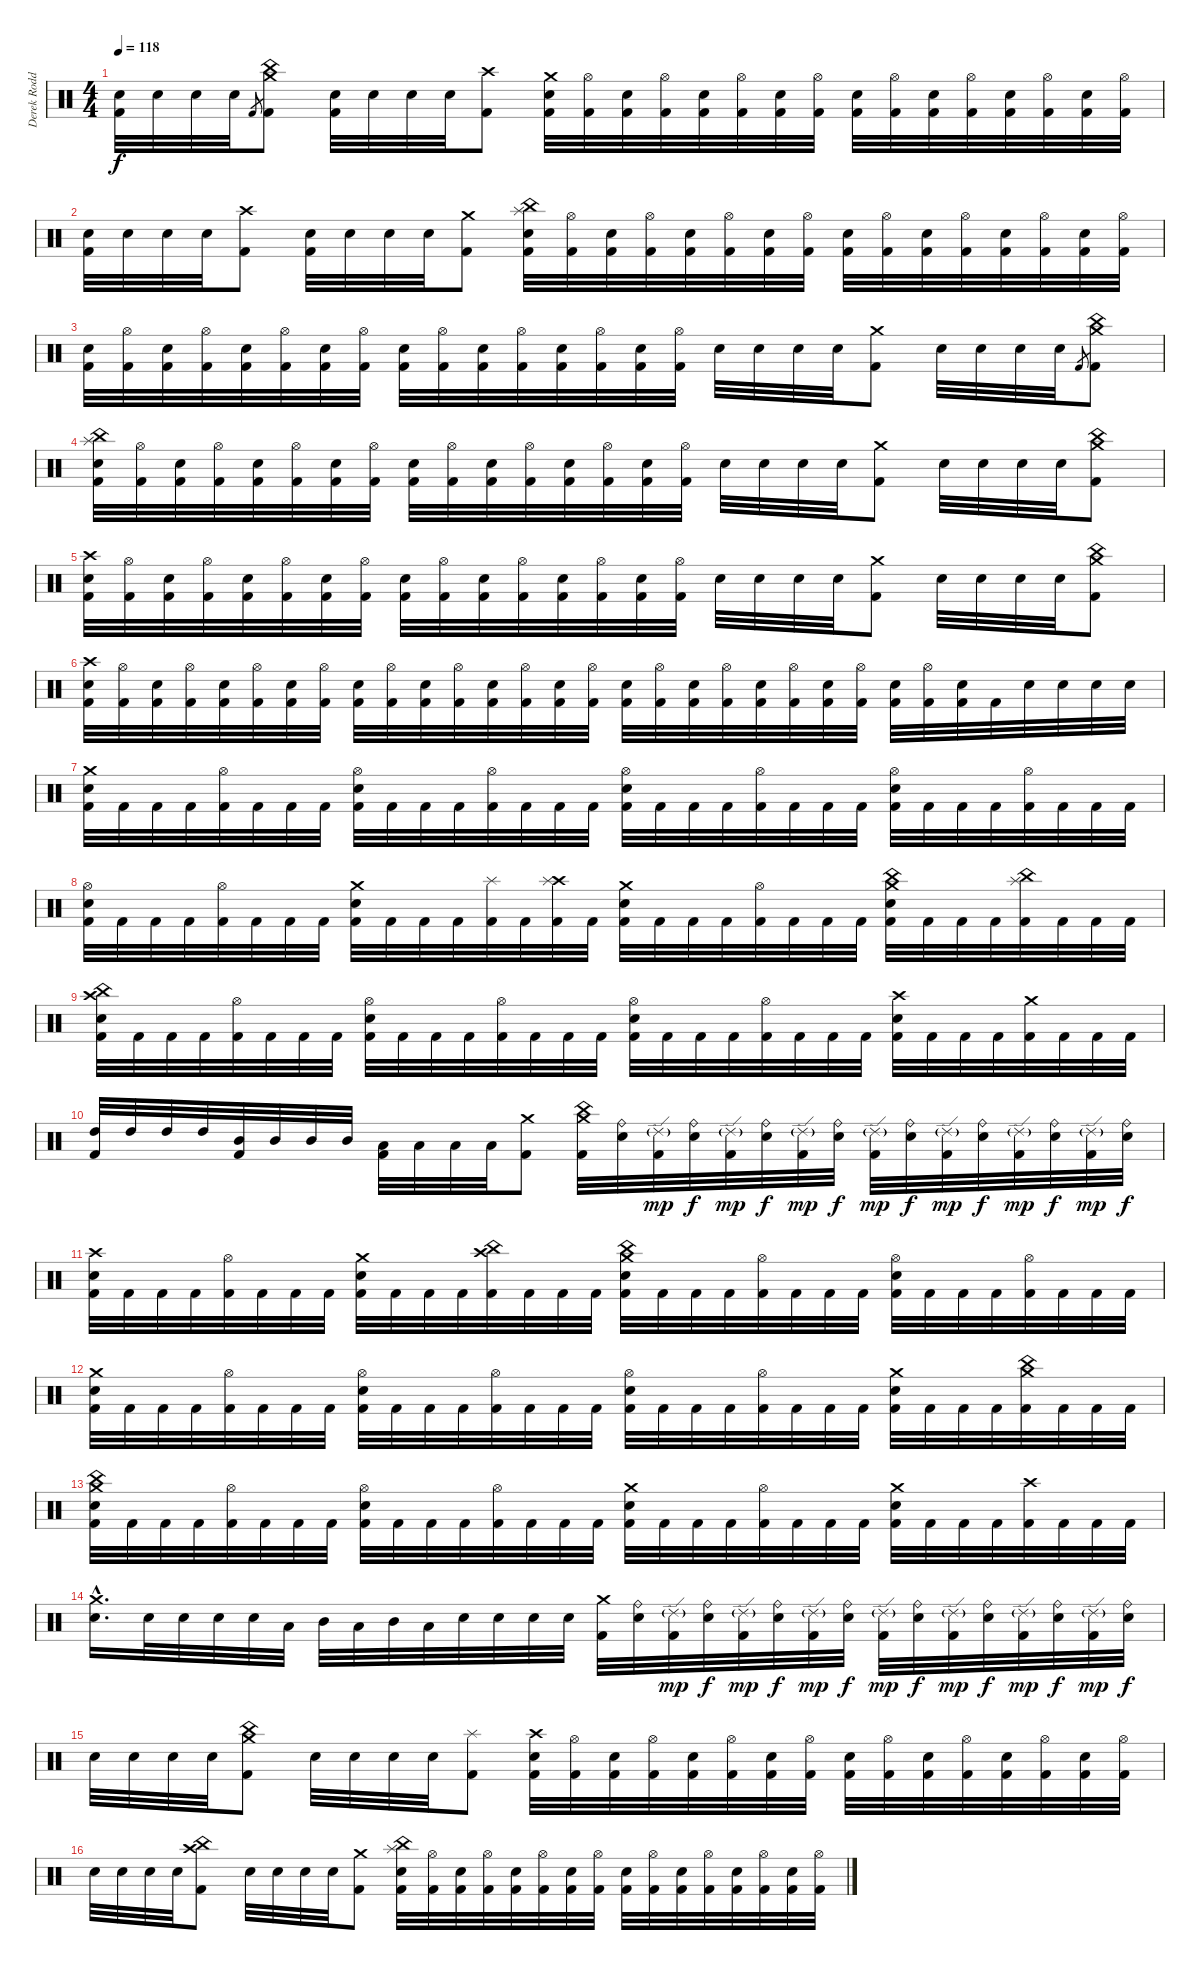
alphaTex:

\track ("Derek Roddy" "Derek Rodd") {instrument percussion}
\staff {score}
\articulation defaults
\ts (4 4)
\tempo 118
\clef neutral
\ks c
("Electric Snare (hit)" "Kick (hit) 2").32{dy f} "Electric Snare (hit)".32 "Electric Snare (hit)".32 "Electric Snare (hit)".32 "Kick (hit) 2".8{gr} ("Crash medium (hit)" "China (hit)" "Kick (hit) 2").8 ("Electric Snare (hit)" "Kick (hit) 2").32 "Electric Snare (hit)".32 "Electric Snare (hit)".32 "Electric Snare (hit)".32 ("Crash high (hit)" "Kick (hit) 2").8 ("Crash medium (hit)" "Electric Snare (hit)" "Kick (hit) 2").32 ("Hi-Hat (open)" "Kick (hit) 2").32 ("Electric Snare (hit)" "Kick (hit) 2").32 ("Hi-Hat (open)" "Kick (hit) 2").32 ("Electric Snare (hit)" "Kick (hit) 2").32 ("Hi-Hat (open)" "Kick (hit) 2").32 ("Electric Snare (hit)" "Kick (hit) 2").32 ("Hi-Hat (open)" "Kick (hit) 2").32 ("Electric Snare (hit)" "Kick (hit) 2").32 ("Hi-Hat (open)" "Kick (hit) 2").32 ("Electric Snare (hit)" "Kick (hit) 2").32 ("Hi-Hat (open)" "Kick (hit) 2").32 ("Electric Snare (hit)" "Kick (hit) 2").32 ("Hi-Hat (open)" "Kick (hit) 2").32 ("Electric Snare (hit)" "Kick (hit) 2").32 ("Hi-Hat (open)" "Kick (hit) 2").32 |
("Electric Snare (hit)" "Kick (hit) 2").32 "Electric Snare (hit)".32 "Electric Snare (hit)".32 "Electric Snare (hit)".32 ("Crash high (hit)" "Kick (hit) 2").8 ("Electric Snare (hit)" "Kick (hit) 2").32 "Electric Snare (hit)".32 "Electric Snare (hit)".32 "Electric Snare (hit)".32 ("Crash medium (hit)" "Kick (hit) 2").8 ("Splash (hit)" "China (hit)" "Electric Snare (hit)" "Kick (hit) 2").32 ("Hi-Hat (open)" "Kick (hit) 2").32 ("Electric Snare (hit)" "Kick (hit) 2").32 ("Hi-Hat (open)" "Kick (hit) 2").32 ("Electric Snare (hit)" "Kick (hit) 2").32 ("Hi-Hat (open)" "Kick (hit) 2").32 ("Electric Snare (hit)" "Kick (hit) 2").32 ("Hi-Hat (open)" "Kick (hit) 2").32 ("Electric Snare (hit)" "Kick (hit) 2").32 ("Hi-Hat (open)" "Kick (hit) 2").32 ("Electric Snare (hit)" "Kick (hit) 2").32 ("Hi-Hat (open)" "Kick (hit) 2").32 ("Electric Snare (hit)" "Kick (hit) 2").32 ("Hi-Hat (open)" "Kick (hit) 2").32 ("Electric Snare (hit)" "Kick (hit) 2").32 ("Hi-Hat (open)" "Kick (hit) 2").32 |
("Electric Snare (hit)" "Kick (hit) 2").32 ("Hi-Hat (open)" "Kick (hit) 2").32 ("Electric Snare (hit)" "Kick (hit) 2").32 ("Hi-Hat (open)" "Kick (hit) 2").32 ("Electric Snare (hit)" "Kick (hit) 2").32 ("Hi-Hat (open)" "Kick (hit) 2").32 ("Electric Snare (hit)" "Kick (hit) 2").32 ("Hi-Hat (open)" "Kick (hit) 2").32 ("Electric Snare (hit)" "Kick (hit) 2").32 ("Hi-Hat (open)" "Kick (hit) 2").32 ("Electric Snare (hit)" "Kick (hit) 2").32 ("Hi-Hat (open)" "Kick (hit) 2").32 ("Electric Snare (hit)" "Kick (hit) 2").32 ("Hi-Hat (open)" "Kick (hit) 2").32 ("Electric Snare (hit)" "Kick (hit) 2").32 ("Hi-Hat (open)" "Kick (hit) 2").32 "Electric Snare (hit)".32 "Electric Snare (hit)".32 "Electric Snare (hit)".32 "Electric Snare (hit)".32 ("Crash medium (hit)" "Kick (hit) 2").8 "Electric Snare (hit)".32 "Electric Snare (hit)".32 "Electric Snare (hit)".32 "Electric Snare (hit)".32 "Kick (hit) 2".8{gr} ("Crash medium (hit)" "China (hit)" "Kick (hit) 2").8 |
("Splash (hit)" "China (hit)" "Electric Snare (hit)" "Kick (hit) 2").32 ("Hi-Hat (open)" "Kick (hit) 2").32 ("Electric Snare (hit)" "Kick (hit) 2").32 ("Hi-Hat (open)" "Kick (hit) 2").32 ("Electric Snare (hit)" "Kick (hit) 2").32 ("Hi-Hat (open)" "Kick (hit) 2").32 ("Electric Snare (hit)" "Kick (hit) 2").32 ("Hi-Hat (open)" "Kick (hit) 2").32 ("Electric Snare (hit)" "Kick (hit) 2").32 ("Hi-Hat (open)" "Kick (hit) 2").32 ("Electric Snare (hit)" "Kick (hit) 2").32 ("Hi-Hat (open)" "Kick (hit) 2").32 ("Electric Snare (hit)" "Kick (hit) 2").32 ("Hi-Hat (open)" "Kick (hit) 2").32 ("Electric Snare (hit)" "Kick (hit) 2").32 ("Hi-Hat (open)" "Kick (hit) 2").32 "Electric Snare (hit)".32 "Electric Snare (hit)".32 "Electric Snare (hit)".32 "Electric Snare (hit)".32 ("Crash medium (hit)" "Kick (hit) 2").8 "Electric Snare (hit)".32 "Electric Snare (hit)".32 "Electric Snare (hit)".32 "Electric Snare (hit)".32 ("Crash medium (hit)" "China (hit)" "Kick (hit) 2").8 |
("Crash high (hit)" "Electric Snare (hit)" "Kick (hit) 2").32 ("Hi-Hat (open)" "Kick (hit) 2").32 ("Electric Snare (hit)" "Kick (hit) 2").32 ("Hi-Hat (open)" "Kick (hit) 2").32 ("Electric Snare (hit)" "Kick (hit) 2").32 ("Hi-Hat (open)" "Kick (hit) 2").32 ("Electric Snare (hit)" "Kick (hit) 2").32 ("Hi-Hat (open)" "Kick (hit) 2").32 ("Electric Snare (hit)" "Kick (hit) 2").32 ("Hi-Hat (open)" "Kick (hit) 2").32 ("Electric Snare (hit)" "Kick (hit) 2").32 ("Hi-Hat (open)" "Kick (hit) 2").32 ("Electric Snare (hit)" "Kick (hit) 2").32 ("Hi-Hat (open)" "Kick (hit) 2").32 ("Electric Snare (hit)" "Kick (hit) 2").32 ("Hi-Hat (open)" "Kick (hit) 2").32 "Electric Snare (hit)".32 "Electric Snare (hit)".32 "Electric Snare (hit)".32 "Electric Snare (hit)".32 ("Crash medium (hit)" "Kick (hit) 2").8 "Electric Snare (hit)".32 "Electric Snare (hit)".32 "Electric Snare (hit)".32 "Electric Snare (hit)".32 ("Crash medium (hit)" "China (hit)" "Kick (hit) 2").8 |
("Crash high (hit)" "Electric Snare (hit)" "Kick (hit) 2").32 ("Hi-Hat (open)" "Kick (hit) 2").32 ("Electric Snare (hit)" "Kick (hit) 2").32 ("Hi-Hat (open)" "Kick (hit) 2").32 ("Electric Snare (hit)" "Kick (hit) 2").32 ("Hi-Hat (open)" "Kick (hit) 2").32 ("Electric Snare (hit)" "Kick (hit) 2").32 ("Hi-Hat (open)" "Kick (hit) 2").32 ("Electric Snare (hit)" "Kick (hit) 2").32 ("Hi-Hat (open)" "Kick (hit) 2").32 ("Electric Snare (hit)" "Kick (hit) 2").32 ("Hi-Hat (open)" "Kick (hit) 2").32 ("Electric Snare (hit)" "Kick (hit) 2").32 ("Hi-Hat (open)" "Kick (hit) 2").32 ("Electric Snare (hit)" "Kick (hit) 2").32 ("Hi-Hat (open)" "Kick (hit) 2").32 ("Electric Snare (hit)" "Kick (hit) 2").32 ("Hi-Hat (open)" "Kick (hit) 2").32 ("Electric Snare (hit)" "Kick (hit) 2").32 ("Hi-Hat (open)" "Kick (hit) 2").32 ("Electric Snare (hit)" "Kick (hit) 2").32 ("Hi-Hat (open)" "Kick (hit) 2").32 ("Electric Snare (hit)" "Kick (hit) 2").32 ("Hi-Hat (open)" "Kick (hit) 2").32 ("Electric Snare (hit)" "Kick (hit) 2").32 ("Hi-Hat (open)" "Kick (hit) 2").32 ("Electric Snare (hit)" "Kick (hit) 2").32 "Kick (hit) 2".32 "Electric Snare (hit)".32 "Electric Snare (hit)".32 "Electric Snare (hit)".32 "Electric Snare (hit)".32 |
("Crash medium (hit)" "Electric Snare (hit)" "Kick (hit) 2").32 "Kick (hit) 2".32 "Kick (hit) 2".32 "Kick (hit) 2".32 ("Hi-Hat (open)" "Kick (hit) 2").32 "Kick (hit) 2".32 "Kick (hit) 2".32 "Kick (hit) 2".32 ("Hi-Hat (open)" "Electric Snare (hit)" "Kick (hit) 2").32 "Kick (hit) 2".32 "Kick (hit) 2".32 "Kick (hit) 2".32 ("Hi-Hat (open)" "Kick (hit) 2").32 "Kick (hit) 2".32 "Kick (hit) 2".32 "Kick (hit) 2".32 ("Hi-Hat (open)" "Electric Snare (hit)" "Kick (hit) 2").32 "Kick (hit) 2".32 "Kick (hit) 2".32 "Kick (hit) 2".32 ("Hi-Hat (open)" "Kick (hit) 2").32 "Kick (hit) 2".32 "Kick (hit) 2".32 "Kick (hit) 2".32 ("Hi-Hat (open)" "Electric Snare (hit)" "Kick (hit) 2").32 "Kick (hit) 2".32 "Kick (hit) 2".32 "Kick (hit) 2".32 ("Hi-Hat (open)" "Kick (hit) 2").32 "Kick (hit) 2".32 "Kick (hit) 2".32 "Kick (hit) 2".32 |
("Hi-Hat (open)" "Electric Snare (hit)" "Kick (hit) 2").32 "Kick (hit) 2".32 "Kick (hit) 2".32 "Kick (hit) 2".32 ("Hi-Hat (open)" "Kick (hit) 2").32 "Kick (hit) 2".32 "Kick (hit) 2".32 "Kick (hit) 2".32 ("Crash medium (hit)" "Electric Snare (hit)" "Kick (hit) 2").32 "Kick (hit) 2".32 "Kick (hit) 2".32 "Kick (hit) 2".32 ("Splash (hit)" "Kick (hit) 2").32 "Kick (hit) 2".32 ("Crash high (hit)" "Splash (hit)" "Kick (hit) 2").32 "Kick (hit) 2".32 ("Crash medium (hit)" "Electric Snare (hit)" "Kick (hit) 2").32 "Kick (hit) 2".32 "Kick (hit) 2".32 "Kick (hit) 2".32 ("Hi-Hat (open)" "Kick (hit) 2").32 "Kick (hit) 2".32 "Kick (hit) 2".32 "Kick (hit) 2".32 ("Crash medium (hit)" "China (hit)" "Electric Snare (hit)" "Kick (hit) 2").32 "Kick (hit) 2".32 "Kick (hit) 2".32 "Kick (hit) 2".32 ("Splash (hit)" "China (hit)" "Kick (hit) 2").32 "Kick (hit) 2".32 "Kick (hit) 2".32 "Kick (hit) 2".32 |
("Crash high (hit)" "China (hit)" "Electric Snare (hit)" "Kick (hit) 2").32 "Kick (hit) 2".32 "Kick (hit) 2".32 "Kick (hit) 2".32 ("Hi-Hat (open)" "Kick (hit) 2").32 "Kick (hit) 2".32 "Kick (hit) 2".32 "Kick (hit) 2".32 ("Hi-Hat (open)" "Electric Snare (hit)" "Kick (hit) 2").32 "Kick (hit) 2".32 "Kick (hit) 2".32 "Kick (hit) 2".32 ("Hi-Hat (open)" "Kick (hit) 2").32 "Kick (hit) 2".32 "Kick (hit) 2".32 "Kick (hit) 2".32 ("Hi-Hat (open)" "Electric Snare (hit)" "Kick (hit) 2").32 "Kick (hit) 2".32 "Kick (hit) 2".32 "Kick (hit) 2".32 ("Hi-Hat (open)" "Kick (hit) 2").32 "Kick (hit) 2".32 "Kick (hit) 2".32 "Kick (hit) 2".32 ("Crash high (hit)" "Electric Snare (hit)" "Kick (hit) 2").32 "Kick (hit) 2".32 "Kick (hit) 2".32 "Kick (hit) 2".32 ("Crash medium (hit)" "Kick (hit) 2").32 "Kick (hit) 2".32 "Kick (hit) 2".32 "Kick (hit) 2".32 |
("High Tom (hit)" "Kick (hit) 2").32 "High Tom (hit)".32 "High Tom (hit)".32 "High Tom (hit)".32 ("Mid Tom (hit)" "Kick (hit) 2").32 "Mid Tom (hit)".32 "Mid Tom (hit)".32 "Mid Tom (hit)".32 ("Low Tom (hit)" "Kick (hit) 2").32 "Low Tom (hit)".32 "Low Tom (hit)".32 "Low Tom (hit)".32 ("Crash medium (hit)" "Kick (hit) 2").8 ("Crash medium (hit)" "China (hit)" "Kick (hit) 2").32 ("Ride (bell)" "Electric Snare (hit)").32 ("Ride (edge) 2"{g} "Kick (hit) 2").32{dy mp} ("Ride (bell)" "Electric Snare (hit)").32{dy f} ("Ride (edge) 2"{g} "Kick (hit) 2").32{dy mp} ("Ride (bell)" "Electric Snare (hit)").32{dy f} ("Ride (edge) 2"{g} "Kick (hit) 2").32{dy mp} ("Ride (bell)" "Electric Snare (hit)").32{dy f} ("Ride (edge) 2"{g} "Kick (hit) 2").32{dy mp} ("Ride (bell)" "Electric Snare (hit)").32{dy f} ("Ride (edge) 2"{g} "Kick (hit) 2").32{dy mp} ("Ride (bell)" "Electric Snare (hit)").32{dy f} ("Ride (edge) 2"{g} "Kick (hit) 2").32{dy mp} ("Ride (bell)" "Electric Snare (hit)").32{dy f} ("Ride (edge) 2"{g} "Kick (hit) 2").32{dy mp} ("Ride (bell)" "Electric Snare (hit)").32{dy f} |
("Crash high (hit)" "Electric Snare (hit)" "Kick (hit) 2").32 "Kick (hit) 2".32 "Kick (hit) 2".32 "Kick (hit) 2".32 ("Hi-Hat (open)" "Kick (hit) 2").32 "Kick (hit) 2".32 "Kick (hit) 2".32 "Kick (hit) 2".32 ("Crash medium (hit)" "Electric Snare (hit)" "Kick (hit) 2").32 "Kick (hit) 2".32 "Kick (hit) 2".32 "Kick (hit) 2".32 ("Crash high (hit)" "China (hit)" "Kick (hit) 2").32 "Kick (hit) 2".32 "Kick (hit) 2".32 "Kick (hit) 2".32 ("Crash medium (hit)" "China (hit)" "Electric Snare (hit)" "Kick (hit) 2").32 "Kick (hit) 2".32 "Kick (hit) 2".32 "Kick (hit) 2".32 ("Hi-Hat (open)" "Kick (hit) 2").32 "Kick (hit) 2".32 "Kick (hit) 2".32 "Kick (hit) 2".32 ("Hi-Hat (open)" "Electric Snare (hit)" "Kick (hit) 2").32 "Kick (hit) 2".32 "Kick (hit) 2".32 "Kick (hit) 2".32 ("Hi-Hat (open)" "Kick (hit) 2").32 "Kick (hit) 2".32 "Kick (hit) 2".32 "Kick (hit) 2".32 |
("Crash medium (hit)" "Electric Snare (hit)" "Kick (hit) 2").32 "Kick (hit) 2".32 "Kick (hit) 2".32 "Kick (hit) 2".32 ("Hi-Hat (open)" "Kick (hit) 2").32 "Kick (hit) 2".32 "Kick (hit) 2".32 "Kick (hit) 2".32 ("Hi-Hat (open)" "Electric Snare (hit)" "Kick (hit) 2").32 "Kick (hit) 2".32 "Kick (hit) 2".32 "Kick (hit) 2".32 ("Hi-Hat (open)" "Kick (hit) 2").32 "Kick (hit) 2".32 "Kick (hit) 2".32 "Kick (hit) 2".32 ("Hi-Hat (open)" "Electric Snare (hit)" "Kick (hit) 2").32 "Kick (hit) 2".32 "Kick (hit) 2".32 "Kick (hit) 2".32 ("Hi-Hat (open)" "Kick (hit) 2").32 "Kick (hit) 2".32 "Kick (hit) 2".32 "Kick (hit) 2".32 ("Crash medium (hit)" "Electric Snare (hit)" "Kick (hit) 2").32 "Kick (hit) 2".32 "Kick (hit) 2".32 "Kick (hit) 2".32 ("Crash medium (hit)" "China (hit)" "Kick (hit) 2").32 "Kick (hit) 2".32 "Kick (hit) 2".32 "Kick (hit) 2".32 |
("Crash medium (hit)" "China (hit)" "Electric Snare (hit)" "Kick (hit) 2").32 "Kick (hit) 2".32 "Kick (hit) 2".32 "Kick (hit) 2".32 ("Hi-Hat (open)" "Kick (hit) 2").32 "Kick (hit) 2".32 "Kick (hit) 2".32 "Kick (hit) 2".32 ("Hi-Hat (open)" "Electric Snare (hit)" "Kick (hit) 2").32 "Kick (hit) 2".32 "Kick (hit) 2".32 "Kick (hit) 2".32 ("Hi-Hat (open)" "Kick (hit) 2").32 "Kick (hit) 2".32 "Kick (hit) 2".32 "Kick (hit) 2".32 ("Crash medium (hit)" "Electric Snare (hit)" "Kick (hit) 2").32 "Kick (hit) 2".32 "Kick (hit) 2".32 "Kick (hit) 2".32 ("Hi-Hat (open)" "Kick (hit) 2").32 "Kick (hit) 2".32 "Kick (hit) 2".32 "Kick (hit) 2".32 ("Crash medium (hit)" "Electric Snare (hit)" "Kick (hit) 2").32 "Kick (hit) 2".32 "Kick (hit) 2".32 "Kick (hit) 2".32 ("Crash high (hit)" "Kick (hit) 2").32 "Kick (hit) 2".32 "Kick (hit) 2".32 "Kick (hit) 2".32 |
("Crash medium (hit)"{hac} "Electric Snare (hit)"{hac}).16{d} "Electric Snare (hit)".32 "Electric Snare (hit)".32 "Electric Snare (hit)".32 "Electric Snare (hit)".32 "Low Tom (hit)".32 "Mid Tom (hit)".32 "Low Tom (hit)".32 "Mid Tom (hit)".32 "Low Tom (hit)".32 "Electric Snare (hit)".32 "Electric Snare (hit)".32 "Electric Snare (hit)".32 "Electric Snare (hit)".32 ("Crash medium (hit)" "Kick (hit) 2").32 ("Ride (bell)" "Electric Snare (hit)").32 ("Ride (edge) 2"{g} "Kick (hit) 2").32{dy mp} ("Ride (bell)" "Electric Snare (hit)").32{dy f} ("Ride (edge) 2"{g} "Kick (hit) 2").32{dy mp} ("Ride (bell)" "Electric Snare (hit)").32{dy f} ("Ride (edge) 2"{g} "Kick (hit) 2").32{dy mp} ("Ride (bell)" "Electric Snare (hit)").32{dy f} ("Ride (edge) 2"{g} "Kick (hit) 2").32{dy mp} ("Ride (bell)" "Electric Snare (hit)").32{dy f} ("Ride (edge) 2"{g} "Kick (hit) 2").32{dy mp} ("Ride (bell)" "Electric Snare (hit)").32{dy f} ("Ride (edge) 2"{g} "Kick (hit) 2").32{dy mp} ("Ride (bell)" "Electric Snare (hit)").32{dy f} ("Ride (edge) 2"{g} "Kick (hit) 2").32{dy mp} ("Ride (bell)" "Electric Snare (hit)").32{dy f} |
"Electric Snare (hit)".32 "Electric Snare (hit)".32 "Electric Snare (hit)".32 "Electric Snare (hit)".32 ("Crash medium (hit)" "China (hit)" "Kick (hit) 2").8 "Electric Snare (hit)".32 "Electric Snare (hit)".32 "Electric Snare (hit)".32 "Electric Snare (hit)".32 ("Splash (hit)" "Kick (hit) 2").8 ("Crash high (hit)" "Electric Snare (hit)" "Kick (hit) 2").32 ("Hi-Hat (open)" "Kick (hit) 2").32 ("Electric Snare (hit)" "Kick (hit) 2").32 ("Hi-Hat (open)" "Kick (hit) 2").32 ("Electric Snare (hit)" "Kick (hit) 2").32 ("Hi-Hat (open)" "Kick (hit) 2").32 ("Electric Snare (hit)" "Kick (hit) 2").32 ("Hi-Hat (open)" "Kick (hit) 2").32 ("Electric Snare (hit)" "Kick (hit) 2").32 ("Hi-Hat (open)" "Kick (hit) 2").32 ("Electric Snare (hit)" "Kick (hit) 2").32 ("Hi-Hat (open)" "Kick (hit) 2").32 ("Electric Snare (hit)" "Kick (hit) 2").32 ("Hi-Hat (open)" "Kick (hit) 2").32 ("Electric Snare (hit)" "Kick (hit) 2").32 ("Hi-Hat (open)" "Kick (hit) 2").32 |
"Electric Snare (hit)".32 "Electric Snare (hit)".32 "Electric Snare (hit)".32 "Electric Snare (hit)".32 ("Crash high (hit)" "China (hit)" "Kick (hit) 2").8 "Electric Snare (hit)".32 "Electric Snare (hit)".32 "Electric Snare (hit)".32 "Electric Snare (hit)".32 ("Crash medium (hit)" "Kick (hit) 2").8 ("Splash (hit)" "China (hit)" "Electric Snare (hit)" "Kick (hit) 2").32 ("Hi-Hat (open)" "Kick (hit) 2").32 ("Electric Snare (hit)" "Kick (hit) 2").32 ("Hi-Hat (open)" "Kick (hit) 2").32 ("Electric Snare (hit)" "Kick (hit) 2").32 ("Hi-Hat (open)" "Kick (hit) 2").32 ("Electric Snare (hit)" "Kick (hit) 2").32 ("Hi-Hat (open)" "Kick (hit) 2").32 ("Electric Snare (hit)" "Kick (hit) 2").32 ("Hi-Hat (open)" "Kick (hit) 2").32 ("Electric Snare (hit)" "Kick (hit) 2").32 ("Hi-Hat (open)" "Kick (hit) 2").32 ("Electric Snare (hit)" "Kick (hit) 2").32 ("Hi-Hat (open)" "Kick (hit) 2").32 ("Electric Snare (hit)" "Kick (hit) 2").32 ("Hi-Hat (open)" "Kick (hit) 2").32
